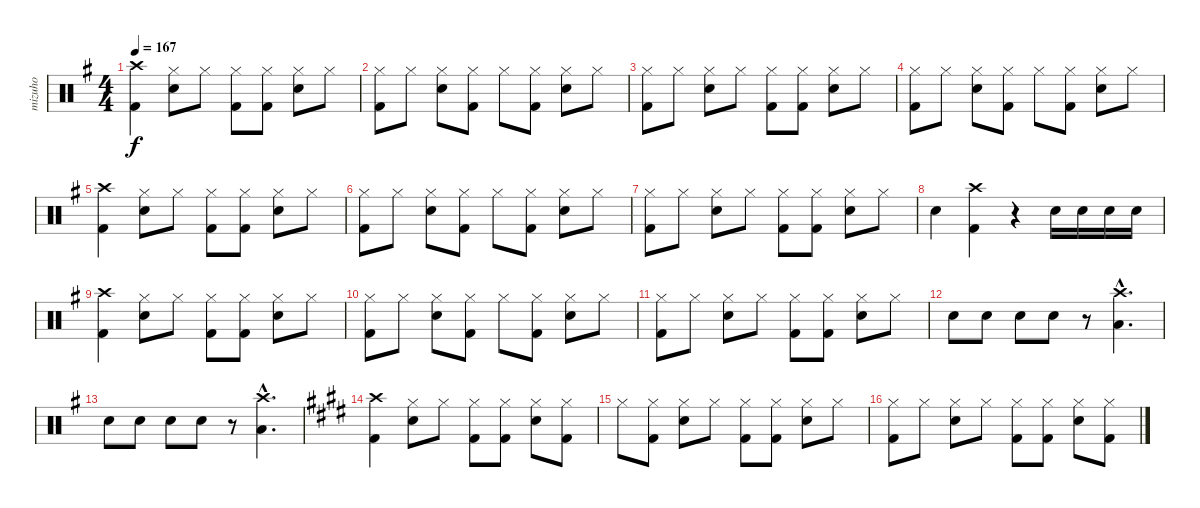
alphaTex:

\track ("mizuho" "mizuho") {instrument percussion}
\staff {score}
\articulation defaults
\ts (4 4)
\tempo 167
\clef neutral
\ks eminor
("Crash high (hit)" "Kick (hit) 2").4{dy f} ("Hi-Hat (closed)" "Electric Snare (hit)").8 "Hi-Hat (closed)".8 ("Hi-Hat (closed)" "Kick (hit) 2").8 ("Hi-Hat (closed)" "Kick (hit) 2").8 ("Hi-Hat (closed)" "Electric Snare (hit)").8 "Hi-Hat (closed)".8 |
("Hi-Hat (closed)" "Kick (hit) 2").8 "Hi-Hat (closed)".8 ("Hi-Hat (closed)" "Electric Snare (hit)").8 ("Hi-Hat (closed)" "Kick (hit) 2").8 "Hi-Hat (closed)".8 ("Hi-Hat (closed)" "Kick (hit) 2").8 ("Hi-Hat (closed)" "Electric Snare (hit)").8 "Hi-Hat (closed)".8 |
("Hi-Hat (closed)" "Kick (hit) 2").8 "Hi-Hat (closed)".8 ("Hi-Hat (closed)" "Electric Snare (hit)").8 "Hi-Hat (closed)".8 ("Hi-Hat (closed)" "Kick (hit) 2").8 ("Hi-Hat (closed)" "Kick (hit) 2").8 ("Hi-Hat (closed)" "Electric Snare (hit)").8 "Hi-Hat (closed)".8 |
("Hi-Hat (closed)" "Kick (hit) 2").8 "Hi-Hat (closed)".8 ("Hi-Hat (closed)" "Electric Snare (hit)").8 ("Hi-Hat (closed)" "Kick (hit) 2").8 "Hi-Hat (closed)".8 ("Hi-Hat (closed)" "Kick (hit) 2").8 ("Hi-Hat (closed)" "Electric Snare (hit)").8 "Hi-Hat (closed)".8 |
("Crash high (hit)" "Kick (hit) 2").4 ("Hi-Hat (closed)" "Electric Snare (hit)").8 "Hi-Hat (closed)".8 ("Hi-Hat (closed)" "Kick (hit) 2").8 ("Hi-Hat (closed)" "Kick (hit) 2").8 ("Hi-Hat (closed)" "Electric Snare (hit)").8 "Hi-Hat (closed)".8 |
("Hi-Hat (closed)" "Kick (hit) 2").8 "Hi-Hat (closed)".8 ("Hi-Hat (closed)" "Electric Snare (hit)").8 ("Hi-Hat (closed)" "Kick (hit) 2").8 "Hi-Hat (closed)".8 ("Hi-Hat (closed)" "Kick (hit) 2").8 ("Hi-Hat (closed)" "Electric Snare (hit)").8 "Hi-Hat (closed)".8 |
("Hi-Hat (closed)" "Kick (hit) 2").8 "Hi-Hat (closed)".8 ("Hi-Hat (closed)" "Electric Snare (hit)").8 "Hi-Hat (closed)".8 ("Hi-Hat (closed)" "Kick (hit) 2").8 ("Hi-Hat (closed)" "Kick (hit) 2").8 ("Hi-Hat (closed)" "Electric Snare (hit)").8 "Hi-Hat (closed)".8 |
"Snare (hit) 2".4 ("Crash high (hit)" "Kick (hit) 2").4 r.4 "Snare (hit) 2".16 "Snare (hit) 2".16 "Snare (hit) 2".16 "Snare (hit) 2".16 |
("Crash high (hit)" "Kick (hit) 2").4 ("Hi-Hat (closed)" "Electric Snare (hit)").8 "Hi-Hat (closed)".8 ("Hi-Hat (closed)" "Kick (hit) 2").8 ("Hi-Hat (closed)" "Kick (hit) 2").8 ("Hi-Hat (closed)" "Electric Snare (hit)").8 "Hi-Hat (closed)".8 |
("Hi-Hat (closed)" "Kick (hit) 2").8 "Hi-Hat (closed)".8 ("Hi-Hat (closed)" "Electric Snare (hit)").8 ("Hi-Hat (closed)" "Kick (hit) 2").8 "Hi-Hat (closed)".8 ("Hi-Hat (closed)" "Kick (hit) 2").8 ("Hi-Hat (closed)" "Electric Snare (hit)").8 "Hi-Hat (closed)".8 |
("Hi-Hat (closed)" "Kick (hit) 2").8 "Hi-Hat (closed)".8 ("Hi-Hat (closed)" "Electric Snare (hit)").8 "Hi-Hat (closed)".8 ("Hi-Hat (closed)" "Kick (hit) 2").8 ("Hi-Hat (closed)" "Kick (hit) 2").8 ("Hi-Hat (closed)" "Electric Snare (hit)").8 "Hi-Hat (closed)".8 |
"Snare (hit) 2".8 "Snare (hit) 2".8 "Snare (hit) 2".8 "Snare (hit) 2".8 r.8 ("Crash high (hit)"{hac} "Low Tom (hit)"{hac}).4{d} |
"Snare (hit) 2".8 "Snare (hit) 2".8 "Snare (hit) 2".8 "Snare (hit) 2".8 r.8 ("Crash high (hit)"{hac} "Low Tom (hit)"{hac}).4{d} |
\ks c#minor
("Crash high (hit)" "Kick (hit) 2").4 ("Hi-Hat (closed)" "Electric Snare (hit)").8 "Hi-Hat (closed)".8 ("Hi-Hat (closed)" "Kick (hit) 2").8 ("Hi-Hat (closed)" "Kick (hit) 2").8 ("Hi-Hat (closed)" "Electric Snare (hit)").8 ("Hi-Hat (closed)" "Kick (hit) 2").8 |
"Hi-Hat (closed)".8 ("Hi-Hat (closed)" "Kick (hit) 2").8 ("Hi-Hat (closed)" "Electric Snare (hit)").8 "Hi-Hat (closed)".8 ("Hi-Hat (closed)" "Kick (hit) 2").8 ("Hi-Hat (closed)" "Kick (hit) 2").8 ("Hi-Hat (closed)" "Electric Snare (hit)").8 "Hi-Hat (closed)".8 |
("Hi-Hat (closed)" "Kick (hit) 2").8 "Hi-Hat (closed)".8 ("Hi-Hat (closed)" "Electric Snare (hit)").8 "Hi-Hat (closed)".8 ("Hi-Hat (closed)" "Kick (hit) 2").8 ("Hi-Hat (closed)" "Kick (hit) 2").8 ("Hi-Hat (closed)" "Electric Snare (hit)").8 ("Hi-Hat (closed)" "Kick (hit) 2").8
